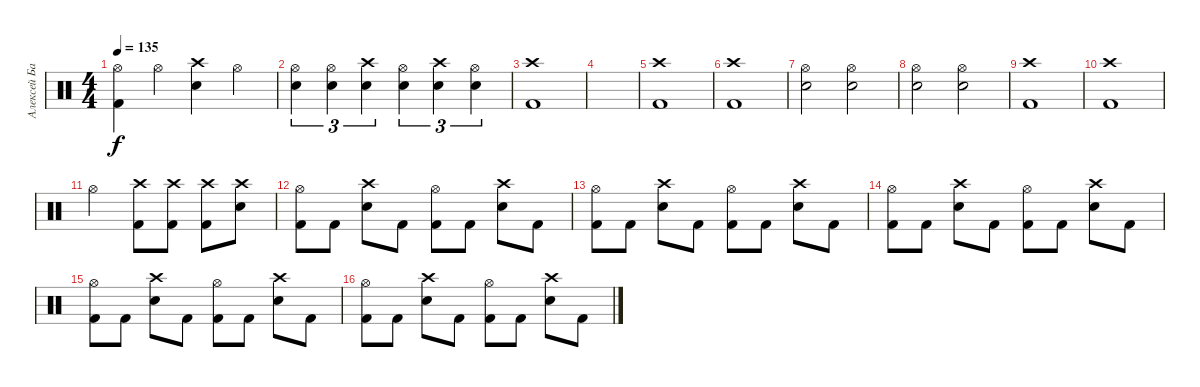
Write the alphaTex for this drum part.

\track ("Алексей Барзилович" "Алексей Ба") {instrument percussion}
\staff {score}
\articulation defaults
\ts (4 4)
\tempo 135
\clef neutral
\ks c
("Kick (hit) 2" "Hi-Hat (open)").4{dy f} "Hi-Hat (open)".4 ("Electric Snare (hit)" "Crash high (hit)").4 "Hi-Hat (open)".4 |
("Hi-Hat (open)" "Electric Snare (hit)").4{tu (3 2)} ("Hi-Hat (open)" "Electric Snare (hit)").4{tu (3 2)} ("Crash high (hit)" "Electric Snare (hit)").4{tu (3 2)} ("Hi-Hat (open)" "Electric Snare (hit)").4{tu (3 2)} ("Crash high (hit)" "Electric Snare (hit)").4{tu (3 2)} ("Hi-Hat (open)" "Electric Snare (hit)").4{tu (3 2)} |
("Crash high (hit)" "Kick (hit) 2").1 |
|
("Crash high (hit)" "Kick (hit) 2").1 |
("Kick (hit) 2" "Crash high (hit)").1 |
("Electric Snare (hit)" "Hi-Hat (open)").2 ("Electric Snare (hit)" "Hi-Hat (open)").2 |
("Electric Snare (hit)" "Hi-Hat (open)").2 ("Electric Snare (hit)" "Hi-Hat (open)").2 |
("Crash high (hit)" "Kick (hit) 2").1 |
("Kick (hit) 2" "Crash high (hit)").1 |
"Hi-Hat (open)".2 ("Crash high (hit)" "Kick (hit) 2").8 ("Crash high (hit)" "Kick (hit) 2").8 ("Crash high (hit)" "Kick (hit) 2").8 ("Crash high (hit)" "Electric Snare (hit)").8 |
("Kick (hit) 2" "Hi-Hat (open)").8 "Kick (hit) 2".8 ("Electric Snare (hit)" "Crash high (hit)").8 "Kick (hit) 2".8 ("Kick (hit) 2" "Hi-Hat (open)").8 "Kick (hit) 2".8 ("Electric Snare (hit)" "Crash high (hit)").8 "Kick (hit) 2".8 |
("Kick (hit) 2" "Hi-Hat (open)").8 "Kick (hit) 2".8 ("Electric Snare (hit)" "Crash high (hit)").8 "Kick (hit) 2".8 ("Kick (hit) 2" "Hi-Hat (open)").8 "Kick (hit) 2".8 ("Electric Snare (hit)" "Crash high (hit)").8 "Kick (hit) 2".8 |
("Kick (hit) 2" "Hi-Hat (open)").8 "Kick (hit) 2".8 ("Electric Snare (hit)" "Crash high (hit)").8 "Kick (hit) 2".8 ("Kick (hit) 2" "Hi-Hat (open)").8 "Kick (hit) 2".8 ("Electric Snare (hit)" "Crash high (hit)").8 "Kick (hit) 2".8 |
("Kick (hit) 2" "Hi-Hat (open)").8 "Kick (hit) 2".8 ("Electric Snare (hit)" "Crash high (hit)").8 "Kick (hit) 2".8 ("Kick (hit) 2" "Hi-Hat (open)").8 "Kick (hit) 2".8 ("Electric Snare (hit)" "Crash high (hit)").8 "Kick (hit) 2".8 |
("Kick (hit) 2" "Hi-Hat (open)").8 "Kick (hit) 2".8 ("Electric Snare (hit)" "Crash high (hit)").8 "Kick (hit) 2".8 ("Kick (hit) 2" "Hi-Hat (open)").8 "Kick (hit) 2".8 ("Electric Snare (hit)" "Crash high (hit)").8 "Kick (hit) 2".8
